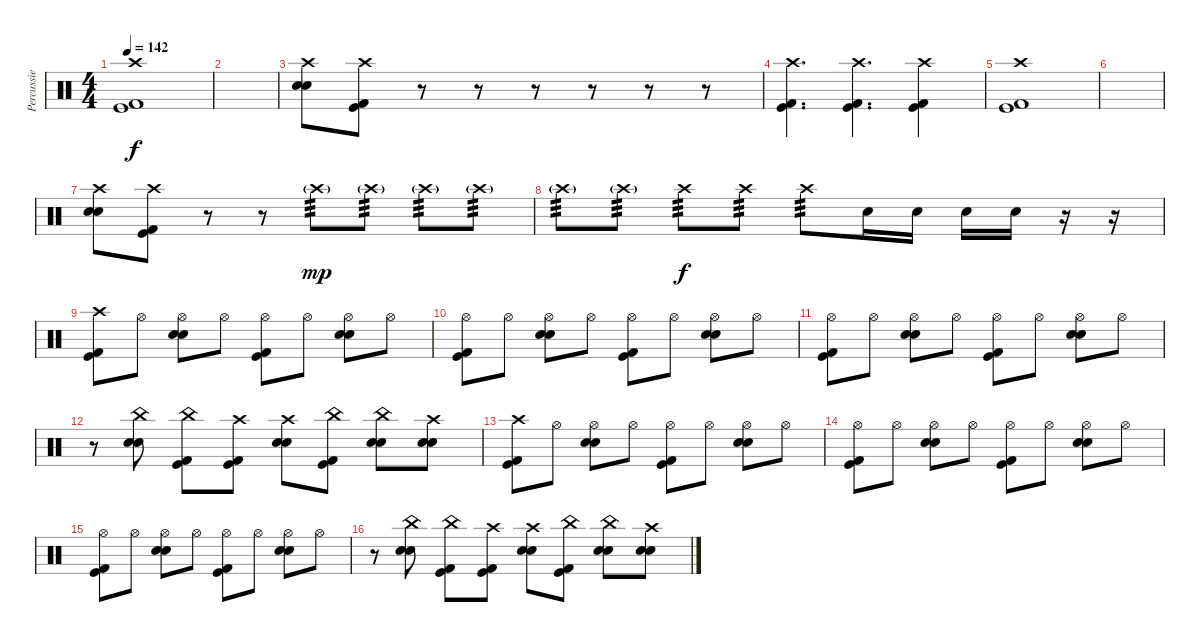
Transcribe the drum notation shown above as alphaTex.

\track ("Percussie" "Percussie") {instrument percussion}
\staff {score}
\articulation defaults
\ts (4 4)
\tempo 142
\clef neutral
\ks c
("Kick (hit)" "Kick (hit) 2" "Crash high (hit)").1{dy f} |
|
("Snare (hit) 2" "Electric Snare (hit)" "Crash high (hit)").8 ("Kick (hit) 2" "Kick (hit)" "Crash high (hit)").8 r.8 r.8 r.8 r.8 r.8 r.8 |
("Kick (hit) 2" "Kick (hit)" "Crash high (hit)").4{d} ("Kick (hit) 2" "Kick (hit)" "Crash high (hit)").4{d} ("Kick (hit) 2" "Kick (hit)" "Crash high (hit)").4 |
("Kick (hit)" "Kick (hit) 2" "Crash high (hit)").1 |
|
("Snare (hit) 2" "Electric Snare (hit)" "Crash high (hit)").8 ("Kick (hit) 2" "Kick (hit)" "Crash high (hit)").8 r.8 r.8 "Crash high (hit)"{g}.8{tp 3 dy mp} "Crash high (hit)"{g}.8{tp 3} "Crash high (hit)"{g}.8{tp 3} "Crash high (hit)"{g}.8{tp 3} |
"Crash high (hit)"{g}.8{tp 3} "Crash high (hit)"{g}.8{tp 3} "Crash high (hit)".8{tp 3 dy f} "Crash high (hit)".8{tp 3} "Crash high (hit)".8{tp 3} "Electric Snare (hit)".16 "Electric Snare (hit)".16 "Electric Snare (hit)".16 "Electric Snare (hit)".16 r.16 r.16 |
("Kick (hit) 2" "Kick (hit)" "Crash high (hit)").8 "Hi-Hat (open)".8 ("Snare (hit) 2" "Electric Snare (hit)" "Hi-Hat (open)").8 "Hi-Hat (open)".8 ("Kick (hit) 2" "Kick (hit)" "Hi-Hat (open)").8 "Hi-Hat (open)".8 ("Snare (hit) 2" "Electric Snare (hit)" "Hi-Hat (open)").8 "Hi-Hat (open)".8 |
("Kick (hit) 2" "Kick (hit)" "Hi-Hat (open)").8 "Hi-Hat (open)".8 ("Snare (hit) 2" "Electric Snare (hit)" "Hi-Hat (open)").8 "Hi-Hat (open)".8 ("Kick (hit) 2" "Kick (hit)" "Hi-Hat (open)").8 "Hi-Hat (open)".8 ("Snare (hit) 2" "Electric Snare (hit)" "Hi-Hat (open)").8 "Hi-Hat (open)".8 |
("Kick (hit) 2" "Kick (hit)" "Hi-Hat (open)").8 "Hi-Hat (open)".8 ("Snare (hit) 2" "Electric Snare (hit)" "Hi-Hat (open)").8 "Hi-Hat (open)".8 ("Kick (hit) 2" "Kick (hit)" "Hi-Hat (open)").8 "Hi-Hat (open)".8 ("Snare (hit) 2" "Electric Snare (hit)" "Hi-Hat (open)").8 "Hi-Hat (open)".8 |
r.8 ("Snare (hit) 2" "Electric Snare (hit)" "China (hit)").8 ("Kick (hit)" "Kick (hit) 2" "China (hit)").8 ("Kick (hit)" "Kick (hit) 2" "Crash high (hit)").8 ("Snare (hit) 2" "Electric Snare (hit)" "Crash high (hit)").8 ("Kick (hit)" "Kick (hit) 2" "China (hit)").8 ("Snare (hit) 2" "Electric Snare (hit)" "China (hit)").8 ("Snare (hit) 2" "Electric Snare (hit)" "Crash high (hit)").8 |
("Kick (hit) 2" "Kick (hit)" "Crash high (hit)").8 "Hi-Hat (open)".8 ("Snare (hit) 2" "Electric Snare (hit)" "Hi-Hat (open)").8 "Hi-Hat (open)".8 ("Kick (hit) 2" "Kick (hit)" "Hi-Hat (open)").8 "Hi-Hat (open)".8 ("Snare (hit) 2" "Electric Snare (hit)" "Hi-Hat (open)").8 "Hi-Hat (open)".8 |
("Kick (hit) 2" "Kick (hit)" "Hi-Hat (open)").8 "Hi-Hat (open)".8 ("Snare (hit) 2" "Electric Snare (hit)" "Hi-Hat (open)").8 "Hi-Hat (open)".8 ("Kick (hit) 2" "Kick (hit)" "Hi-Hat (open)").8 "Hi-Hat (open)".8 ("Snare (hit) 2" "Electric Snare (hit)" "Hi-Hat (open)").8 "Hi-Hat (open)".8 |
("Kick (hit) 2" "Kick (hit)" "Hi-Hat (open)").8 "Hi-Hat (open)".8 ("Snare (hit) 2" "Electric Snare (hit)" "Hi-Hat (open)").8 "Hi-Hat (open)".8 ("Kick (hit) 2" "Kick (hit)" "Hi-Hat (open)").8 "Hi-Hat (open)".8 ("Snare (hit) 2" "Electric Snare (hit)" "Hi-Hat (open)").8 "Hi-Hat (open)".8 |
r.8 ("Snare (hit) 2" "Electric Snare (hit)" "China (hit)").8 ("Kick (hit)" "Kick (hit) 2" "China (hit)").8 ("Kick (hit)" "Kick (hit) 2" "Crash high (hit)").8 ("Snare (hit) 2" "Electric Snare (hit)" "Crash high (hit)").8 ("Kick (hit)" "Kick (hit) 2" "China (hit)").8 ("Snare (hit) 2" "Electric Snare (hit)" "China (hit)").8 ("Snare (hit) 2" "Electric Snare (hit)" "Crash high (hit)").8
